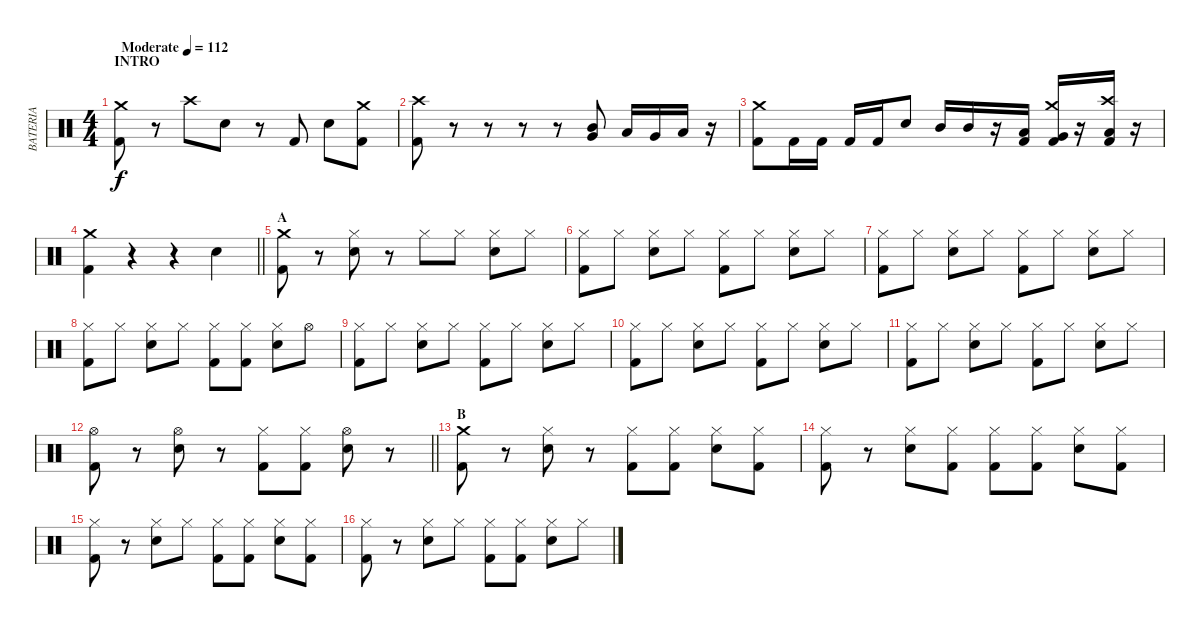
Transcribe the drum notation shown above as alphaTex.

\track ("BATERIA" "BATERIA") {instrument percussion}
\staff {score}
\articulation defaults
\ts (4 4)
\section ("" "INTRO")
\tempo (112 "Moderate")
\clef neutral
\ks c
("Kick (hit) 2" "Crash medium (hit)").8{dy f} r.8 "Crash high (hit)".8 "Electric Snare (hit)".8 r.8 "Kick (hit) 2".8 "Electric Snare (hit)".8 ("Kick (hit) 2" "Crash medium (hit)").8 |
("Kick (hit) 2" "Crash high (hit)").8 r.8 r.8 r.8 r.8 ("Mid Tom (hit)" "Very Low Tom (hit)").8 "Low Tom (hit)".16 "Very Low Tom (hit)".16 "Low Floor Tom (hit)".16 r.16 |
("Kick (hit) 2" "Crash medium (hit)").8 "Kick (hit) 2".16 "Kick (hit) 2".16 "Kick (hit) 2".16 "Kick (hit) 2".16 "Electric Snare (hit)".8 "Mid Tom (hit)".16 "Mid Tom (hit)".16 r.16 ("Kick (hit) 2" "Low Tom (hit)").16 ("Kick (hit) 2" "Very Low Tom (hit)" "Crash medium (hit)").16 r.16 ("Kick (hit) 2" "Low Floor Tom (hit)" "Crash high (hit)").16 r.16 |
\barLineRight lightlight
("Kick (hit) 2" "Crash medium (hit)").4 r.4 r.4 "Electric Snare (hit)".4 |
\section ("" "A")
("Kick (hit) 2" "Crash medium (hit)").8 r.8 ("Hi-Hat (closed)" "Electric Snare (hit)").8 r.8 "Hi-Hat (closed)".8 "Hi-Hat (closed)".8 ("Hi-Hat (closed)" "Electric Snare (hit)").8 "Hi-Hat (closed)".8 |
("Kick (hit) 2" "Hi-Hat (closed)").8 "Hi-Hat (closed)".8 ("Hi-Hat (closed)" "Electric Snare (hit)").8 "Hi-Hat (closed)".8 ("Kick (hit) 2" "Hi-Hat (closed)").8 "Hi-Hat (closed)".8 ("Hi-Hat (closed)" "Electric Snare (hit)").8 "Hi-Hat (closed)".8 |
("Kick (hit) 2" "Hi-Hat (closed)").8 "Hi-Hat (closed)".8 ("Hi-Hat (closed)" "Electric Snare (hit)").8 "Hi-Hat (closed)".8 ("Kick (hit) 2" "Hi-Hat (closed)").8 "Hi-Hat (closed)".8 ("Hi-Hat (closed)" "Electric Snare (hit)").8 "Hi-Hat (closed)".8 |
("Kick (hit) 2" "Hi-Hat (closed)").8 "Hi-Hat (closed)".8 ("Hi-Hat (closed)" "Electric Snare (hit)").8 "Hi-Hat (closed)".8 ("Kick (hit) 2" "Hi-Hat (closed)").8 ("Kick (hit) 2" "Hi-Hat (closed)").8 ("Hi-Hat (closed)" "Electric Snare (hit)").8 "Hi-Hat (open)".8 |
("Kick (hit) 2" "Hi-Hat (closed)").8 "Hi-Hat (closed)".8 ("Hi-Hat (closed)" "Electric Snare (hit)").8 "Hi-Hat (closed)".8 ("Kick (hit) 2" "Hi-Hat (closed)").8 "Hi-Hat (closed)".8 ("Hi-Hat (closed)" "Electric Snare (hit)").8 "Hi-Hat (closed)".8 |
("Kick (hit) 2" "Hi-Hat (closed)").8 "Hi-Hat (closed)".8 ("Hi-Hat (closed)" "Electric Snare (hit)").8 "Hi-Hat (closed)".8 ("Kick (hit) 2" "Hi-Hat (closed)").8 "Hi-Hat (closed)".8 ("Hi-Hat (closed)" "Electric Snare (hit)").8 "Hi-Hat (closed)".8 |
("Kick (hit) 2" "Hi-Hat (closed)").8 "Hi-Hat (closed)".8 ("Hi-Hat (closed)" "Electric Snare (hit)").8 "Hi-Hat (closed)".8 ("Kick (hit) 2" "Hi-Hat (closed)").8 "Hi-Hat (closed)".8 ("Hi-Hat (closed)" "Electric Snare (hit)").8 "Hi-Hat (closed)".8 |
\barLineRight lightlight
("Kick (hit) 2" "Hi-Hat (open)").8 r.8 ("Hi-Hat (open)" "Electric Snare (hit)").8 r.8 ("Kick (hit) 2" "Hi-Hat (closed)").8 ("Kick (hit) 2" "Hi-Hat (closed)").8 ("Hi-Hat (open)" "Electric Snare (hit)").8 r.8 |
\section ("" "B")
("Kick (hit) 2" "Crash medium (hit)").8 r.8 ("Hi-Hat (closed)" "Electric Snare (hit)").8 r.8 ("Kick (hit) 2" "Hi-Hat (closed)").8 ("Kick (hit) 2" "Hi-Hat (closed)").8 ("Hi-Hat (closed)" "Electric Snare (hit)").8 ("Kick (hit) 2" "Hi-Hat (closed)").8 |
("Kick (hit) 2" "Hi-Hat (closed)").8 r.8 ("Hi-Hat (closed)" "Electric Snare (hit)").8 ("Kick (hit) 2" "Hi-Hat (closed)").8 ("Kick (hit) 2" "Hi-Hat (closed)").8 ("Kick (hit) 2" "Hi-Hat (closed)").8 ("Hi-Hat (closed)" "Electric Snare (hit)").8 ("Kick (hit) 2" "Hi-Hat (closed)").8 |
("Kick (hit) 2" "Hi-Hat (closed)").8 r.8 ("Hi-Hat (closed)" "Electric Snare (hit)").8 "Hi-Hat (closed)".8 ("Kick (hit) 2" "Hi-Hat (closed)").8 ("Kick (hit) 2" "Hi-Hat (closed)").8 ("Hi-Hat (closed)" "Electric Snare (hit)").8 ("Kick (hit) 2" "Hi-Hat (closed)").8 |
("Kick (hit) 2" "Hi-Hat (closed)").8 r.8 ("Hi-Hat (closed)" "Electric Snare (hit)").8 "Hi-Hat (closed)".8 ("Kick (hit) 2" "Hi-Hat (closed)").8 ("Kick (hit) 2" "Hi-Hat (closed)").8 ("Hi-Hat (closed)" "Electric Snare (hit)").8 "Hi-Hat (closed)".8
